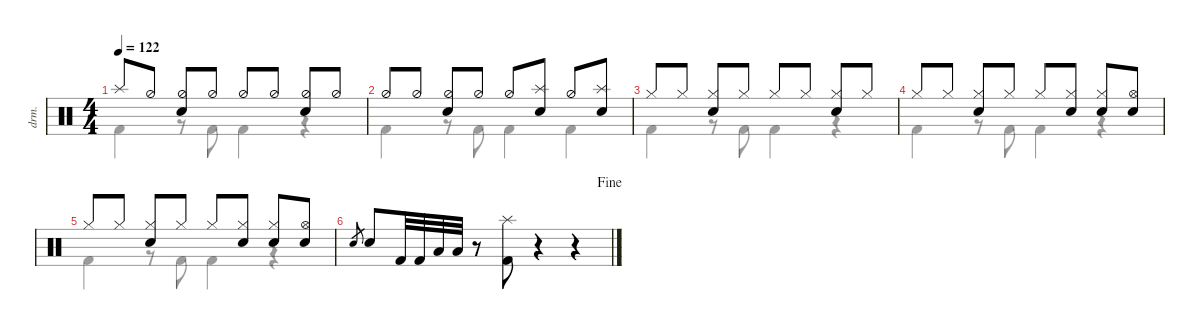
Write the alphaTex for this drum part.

\defaultSystemsLayout 4
\hideDynamics
\bracketExtendMode nobrackets
\track ("Drumkit" "drm.") {defaultSystemsLayout 4 instrument percussion}
\staff {score}
\articulation defaults
\voice
\ts (4 4)
\tempo 122
\clef neutral
\ks c "Splash (hit)".8{dy mf beam Up} "Hi-Hat (half)".8{beam Up}
("Hi-Hat (half)" "Snare (hit) 2").8{beam Up} "Hi-Hat (half)".8{beam Up} "Hi-Hat (half)".8{beam Up} "Hi-Hat (half)".8{beam Up} ("Hi-Hat (half)" "Snare (hit) 2").8{beam Up} "Hi-Hat (half)".8{beam Up} |
"Hi-Hat (half)".8{beam Up} "Hi-Hat (half)".8{beam Up} ("Hi-Hat (half)" "Snare (hit) 2").8{beam Up} "Hi-Hat (half)".8{beam Up} "Hi-Hat (half)".8{beam Up} ("Snare (hit) 2" "Splash (hit)").8{beam Up} "Hi-Hat (half)".8{beam Up} ("Snare (hit) 2" "Splash (hit)").8{beam Up} |
"Hi-Hat (closed)".8{beam Up} "Hi-Hat (closed)".8{beam Up} ("Hi-Hat (closed)" "Snare (hit) 2").8{beam Up} "Hi-Hat (closed)".8{beam Up} "Hi-Hat (closed)".8{beam Up} "Hi-Hat (closed)".8{beam Up} ("Hi-Hat (closed)" "Snare (hit) 2").8{beam Up} "Hi-Hat (closed)".8{beam Up} |
"Hi-Hat (closed)".8{beam Up} "Hi-Hat (closed)".8{beam Up} ("Hi-Hat (closed)" "Snare (hit) 2").8{beam Up} "Hi-Hat (closed)".8{beam Up} "Hi-Hat (closed)".8{beam Up} ("Hi-Hat (closed)" "Snare (hit) 2").8{beam Up} ("Hi-Hat (closed)" "Snare (hit) 2").8{beam Up} ("Hi-Hat (open)" "Snare (hit) 2").8{beam Up} |
"Hi-Hat (closed)".8{beam Up} "Hi-Hat (closed)".8{beam Up} ("Hi-Hat (closed)" "Snare (hit) 2").8{beam Up} "Hi-Hat (closed)".8{beam Up} "Hi-Hat (closed)".8{beam Up} ("Hi-Hat (closed)" "Snare (hit) 2").8{beam Up} ("Hi-Hat (closed)" "Snare (hit) 2").8{beam Up} ("Hi-Hat (open)" "Snare (hit) 2").8{beam Up} |
\jump fine "Snare (hit) 2".8{gr beam Up} "Snare (hit) 2".8{beam Up} "Kick (hit) 2".32{beam Up} "Kick (hit) 2".32{beam Up} "Low Tom (hit)".32{beam Up} "Low Tom (hit)".32{beam Up}
r.8{beam Down} ("Kick (hit) 2" "Splash (hit)").8{beam Down} r.4{beam Down} r.4{beam Down}
\voice
\clef neutral
\ottava regular
\simile none
\ks c
|
|
|
|
|
\voice
\clef neutral
\ottava regular
\simile none
\ks c "Kick (hit) 2".4{dy mf beam Down}
r.8{beam Down} "Kick (hit) 2".8{beam Down} "Kick (hit) 2".4{beam Down} r.4{beam Down} |
"Kick (hit) 2".4{beam Down} r.8{beam Down} "Kick (hit) 2".8{beam Down} "Kick (hit) 2".4{beam Down} "Kick (hit) 2".4{beam Down} |
"Kick (hit) 2".4{beam Down} r.8{beam Down} "Kick (hit) 2".8{beam Down} "Kick (hit) 2".4{beam Down} r.4{beam Down} |
"Kick (hit) 2".4{beam Down} r.8{beam Down} "Kick (hit) 2".8{beam Down} "Kick (hit) 2".4{beam Down} r.4{beam Down} |
"Kick (hit) 2".4{beam Down} r.8{beam Down} "Kick (hit) 2".8{beam Down} "Kick (hit) 2".4{beam Down} r.4{beam Down} |
